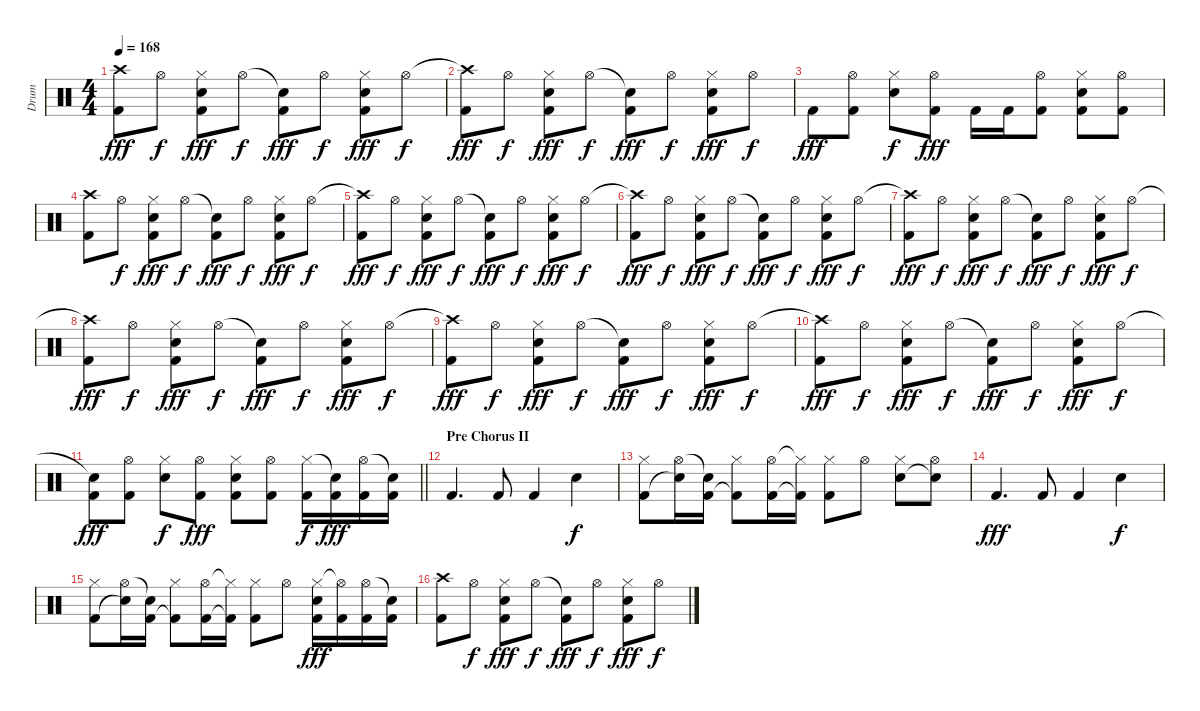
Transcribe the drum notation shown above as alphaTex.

\track ("Drum" "Drum") {instrument percussion}
\staff {score}
\articulation defaults
\ts (4 4)
\tempo 168
\clef neutral
\ks c
("Crash high (hit)"{t} "Kick (hit) 2").8{dy fff} "Hi-Hat (open)".8{dy f} ("Hi-Hat (closed)" "Snare (hit) 2" "Kick (hit) 2").8{dy fff} "Hi-Hat (open)".8{dy f} ("Snare (hit)"{t} "Kick (hit) 2").8{dy fff} "Hi-Hat (open)".8{dy f} ("Hi-Hat (closed)" "Snare (hit) 2" "Kick (hit) 2").8{dy fff} "Hi-Hat (open)".8{dy f} |
("Crash high (hit)"{t} "Kick (hit) 2").8{dy fff} "Hi-Hat (open)".8{dy f} ("Hi-Hat (closed)" "Snare (hit) 2" "Kick (hit) 2").8{dy fff} "Hi-Hat (open)".8{dy f} ("Snare (hit)"{t} "Kick (hit) 2").8{dy fff} "Hi-Hat (open)".8{dy f} ("Hi-Hat (closed)" "Snare (hit) 2" "Kick (hit) 2").8{dy fff} "Hi-Hat (open)".8{dy f} |
"Kick (hit) 2".8{dy fff} ("Hi-Hat (open)" "Kick (hit) 2").8 ("Hi-Hat (closed)" "Snare (hit) 2").8{dy f} ("Hi-Hat (open)" "Kick (hit) 2").8{dy fff} "Kick (hit) 2".16 "Kick (hit) 2".16 ("Hi-Hat (open)" "Kick (hit) 2").8 ("Hi-Hat (closed)" "Snare (hit) 2" "Kick (hit) 2").8 ("Hi-Hat (open)" "Kick (hit) 2").8 |
("Crash high (hit)" "Kick (hit) 2").8 "Hi-Hat (open)".8{dy f} ("Hi-Hat (closed)" "Snare (hit) 2" "Kick (hit) 2").8{dy fff} "Hi-Hat (open)".8{dy f} ("Snare (hit)"{t} "Kick (hit) 2").8{dy fff} "Hi-Hat (open)".8{dy f} ("Hi-Hat (closed)" "Snare (hit) 2" "Kick (hit) 2").8{dy fff} "Hi-Hat (open)".8{dy f} |
("Crash high (hit)"{t} "Kick (hit) 2").8{dy fff} "Hi-Hat (open)".8{dy f} ("Hi-Hat (closed)" "Snare (hit) 2" "Kick (hit) 2").8{dy fff} "Hi-Hat (open)".8{dy f} ("Snare (hit)"{t} "Kick (hit) 2").8{dy fff} "Hi-Hat (open)".8{dy f} ("Hi-Hat (closed)" "Snare (hit) 2" "Kick (hit) 2").8{dy fff} "Hi-Hat (open)".8{dy f} |
("Crash high (hit)"{t} "Kick (hit) 2").8{dy fff} "Hi-Hat (open)".8{dy f} ("Hi-Hat (closed)" "Snare (hit) 2" "Kick (hit) 2").8{dy fff} "Hi-Hat (open)".8{dy f} ("Snare (hit)"{t} "Kick (hit) 2").8{dy fff} "Hi-Hat (open)".8{dy f} ("Hi-Hat (closed)" "Snare (hit) 2" "Kick (hit) 2").8{dy fff} "Hi-Hat (open)".8{dy f} |
("Crash high (hit)"{t} "Kick (hit) 2").8{dy fff} "Hi-Hat (open)".8{dy f} ("Hi-Hat (closed)" "Snare (hit) 2" "Kick (hit) 2").8{dy fff} "Hi-Hat (open)".8{dy f} ("Snare (hit)"{t} "Kick (hit) 2").8{dy fff} "Hi-Hat (open)".8{dy f} ("Hi-Hat (closed)" "Snare (hit) 2" "Kick (hit) 2").8{dy fff} "Hi-Hat (open)".8{dy f} |
("Crash high (hit)"{t} "Kick (hit) 2").8{dy fff} "Hi-Hat (open)".8{dy f} ("Hi-Hat (closed)" "Snare (hit) 2" "Kick (hit) 2").8{dy fff} "Hi-Hat (open)".8{dy f} ("Snare (hit)"{t} "Kick (hit) 2").8{dy fff} "Hi-Hat (open)".8{dy f} ("Hi-Hat (closed)" "Snare (hit) 2" "Kick (hit) 2").8{dy fff} "Hi-Hat (open)".8{dy f} |
("Crash high (hit)"{t} "Kick (hit) 2").8{dy fff} "Hi-Hat (open)".8{dy f} ("Hi-Hat (closed)" "Snare (hit) 2" "Kick (hit) 2").8{dy fff} "Hi-Hat (open)".8{dy f} ("Snare (hit)"{t} "Kick (hit) 2").8{dy fff} "Hi-Hat (open)".8{dy f} ("Hi-Hat (closed)" "Snare (hit) 2" "Kick (hit) 2").8{dy fff} "Hi-Hat (open)".8{dy f} |
("Crash high (hit)"{t} "Kick (hit) 2").8{dy fff} "Hi-Hat (open)".8{dy f} ("Hi-Hat (closed)" "Snare (hit) 2" "Kick (hit) 2").8{dy fff} "Hi-Hat (open)".8{dy f} ("Snare (hit)"{t} "Kick (hit) 2").8{dy fff} "Hi-Hat (open)".8{dy f} ("Hi-Hat (closed)" "Snare (hit) 2" "Kick (hit) 2").8{dy fff} "Hi-Hat (open)".8{dy f} |
\barLineRight lightlight
("Snare (hit)"{t} "Kick (hit) 2").8{dy fff} ("Hi-Hat (open)" "Kick (hit) 2").8 ("Hi-Hat (closed)" "Snare (hit) 2").8{dy f} ("Hi-Hat (open)" "Kick (hit) 2").8{dy fff} ("Hi-Hat (closed)" "Snare (hit) 2" "Kick (hit) 2").8 ("Hi-Hat (open)" "Kick (hit) 2").8 ("Hi-Hat (closed)" "Kick (hit) 2").16{dy f} ("Snare (hit)"{t} "Kick (hit) 2").16{dy fff} ("Hi-Hat (open)" "Kick (hit) 2").16 ("Snare (hit)"{t} "Kick (hit) 2").16 |
\section ("" "Pre Chorus II")
"Kick (hit) 2".4{d} "Kick (hit) 2".8 "Kick (hit) 2".4 "Snare (hit) 2".4{dy f} |
("Hi-Hat (closed)" "Kick (hit) 2").8 ("Hi-Hat (open)" "Snare (hit)"{t}).16 ("Snare (hit)"{t} "Kick (hit) 2").16 ("Hi-Hat (closed)" "Kick (hit) 2"{t}).8 ("Hi-Hat (open)" "Kick (hit) 2").16 ("Hi-Hat (closed)"{t} "Kick (hit) 2"{t}).16 ("Hi-Hat (closed)" "Kick (hit) 2").8 "Hi-Hat (open)".8 ("Hi-Hat (closed)" "Snare (hit) 2").8 ("Hi-Hat (open)" "Snare (hit)"{t}).8 |
"Kick (hit) 2".4{d dy fff} "Kick (hit) 2".8 "Kick (hit) 2".4 "Snare (hit) 2".4{dy f} |
("Hi-Hat (closed)" "Kick (hit) 2").8 ("Hi-Hat (open)" "Snare (hit)"{t}).16 ("Snare (hit)"{t} "Kick (hit) 2").16 ("Hi-Hat (closed)" "Kick (hit) 2"{t}).8 ("Hi-Hat (open)" "Kick (hit) 2").16 ("Hi-Hat (closed)"{t} "Kick (hit) 2"{t}).16 ("Hi-Hat (closed)" "Kick (hit) 2").8 "Hi-Hat (open)".8 ("Hi-Hat (closed)" "Snare (hit) 2" "Kick (hit) 2").16{dy fff} ("Hi-Hat (open)"{t} "Kick (hit) 2").16 ("Hi-Hat (open)" "Kick (hit) 2").16 ("Snare (hit)"{t} "Kick (hit) 2").16 |
("Crash high (hit)" "Kick (hit) 2").8 "Hi-Hat (open)".8{dy f} ("Hi-Hat (closed)" "Snare (hit) 2" "Kick (hit) 2").8{dy fff} "Hi-Hat (open)".8{dy f} ("Snare (hit)"{t} "Kick (hit) 2").8{dy fff} "Hi-Hat (open)".8{dy f} ("Hi-Hat (closed)" "Snare (hit) 2" "Kick (hit) 2").8{dy fff} "Hi-Hat (open)".8{dy f}
